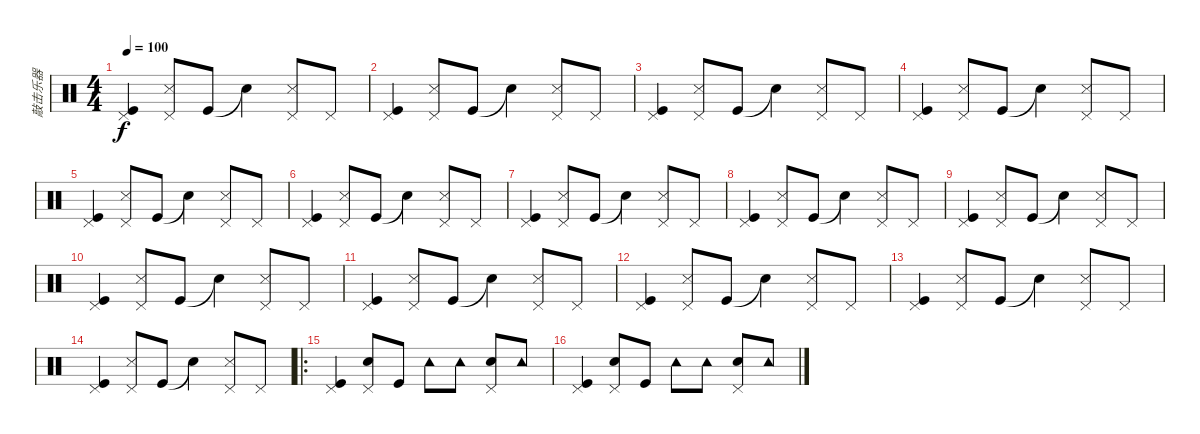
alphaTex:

\track ("敲击乐器" "敲击乐器") {instrument percussion}
\staff {score}
\articulation defaults
\ts (4 4)
\tempo 100
\clef neutral
\ks c
("Pedal Hi-Hat (hit)" "Kick (hit)").4{dy f} ("Pedal Hi-Hat (hit)" "Snare (side stick) 3").8 "Kick (hit)".8 "Snare (hit)"{t}.4 ("Pedal Hi-Hat (hit)" "Snare (side stick) 3").8 "Pedal Hi-Hat (hit)".8 |
("Pedal Hi-Hat (hit)" "Kick (hit)").4 ("Pedal Hi-Hat (hit)" "Snare (side stick) 3").8 "Kick (hit)".8 "Snare (hit)"{t}.4 ("Pedal Hi-Hat (hit)" "Snare (side stick) 3").8 "Pedal Hi-Hat (hit)".8 |
("Pedal Hi-Hat (hit)" "Kick (hit)").4 ("Pedal Hi-Hat (hit)" "Snare (side stick) 3").8 "Kick (hit)".8 "Snare (hit)"{t}.4 ("Pedal Hi-Hat (hit)" "Snare (side stick) 3").8 "Pedal Hi-Hat (hit)".8 |
("Pedal Hi-Hat (hit)" "Kick (hit)").4 ("Pedal Hi-Hat (hit)" "Snare (side stick) 3").8 "Kick (hit)".8 "Snare (hit)"{t}.4 ("Pedal Hi-Hat (hit)" "Snare (side stick) 3").8 "Pedal Hi-Hat (hit)".8 |
("Pedal Hi-Hat (hit)" "Kick (hit)").4 ("Pedal Hi-Hat (hit)" "Snare (side stick) 3").8 "Kick (hit)".8 "Snare (hit)"{t}.4 ("Pedal Hi-Hat (hit)" "Snare (side stick) 3").8 "Pedal Hi-Hat (hit)".8 |
("Pedal Hi-Hat (hit)" "Kick (hit)").4 ("Pedal Hi-Hat (hit)" "Snare (side stick) 3").8 "Kick (hit)".8 "Snare (hit)"{t}.4 ("Pedal Hi-Hat (hit)" "Snare (side stick) 3").8 "Pedal Hi-Hat (hit)".8 |
("Pedal Hi-Hat (hit)" "Kick (hit)").4 ("Pedal Hi-Hat (hit)" "Snare (side stick) 3").8 "Kick (hit)".8 "Snare (hit)"{t}.4 ("Pedal Hi-Hat (hit)" "Snare (side stick) 3").8 "Pedal Hi-Hat (hit)".8 |
("Pedal Hi-Hat (hit)" "Kick (hit)").4 ("Pedal Hi-Hat (hit)" "Snare (side stick) 3").8 "Kick (hit)".8 "Snare (hit)"{t}.4 ("Pedal Hi-Hat (hit)" "Snare (side stick) 3").8 "Pedal Hi-Hat (hit)".8 |
("Pedal Hi-Hat (hit)" "Kick (hit)").4 ("Pedal Hi-Hat (hit)" "Snare (side stick) 3").8 "Kick (hit)".8 "Snare (hit)"{t}.4 ("Pedal Hi-Hat (hit)" "Snare (side stick) 3").8 "Pedal Hi-Hat (hit)".8 |
("Pedal Hi-Hat (hit)" "Kick (hit)").4 ("Pedal Hi-Hat (hit)" "Snare (side stick) 3").8 "Kick (hit)".8 "Snare (hit)"{t}.4 ("Pedal Hi-Hat (hit)" "Snare (side stick) 3").8 "Pedal Hi-Hat (hit)".8 |
("Pedal Hi-Hat (hit)" "Kick (hit)").4 ("Pedal Hi-Hat (hit)" "Snare (side stick) 3").8 "Kick (hit)".8 "Snare (hit)"{t}.4 ("Pedal Hi-Hat (hit)" "Snare (side stick) 3").8 "Pedal Hi-Hat (hit)".8 |
("Pedal Hi-Hat (hit)" "Kick (hit)").4 ("Pedal Hi-Hat (hit)" "Snare (side stick) 3").8 "Kick (hit)".8 "Snare (hit)"{t}.4 ("Pedal Hi-Hat (hit)" "Snare (side stick) 3").8 "Pedal Hi-Hat (hit)".8 |
("Pedal Hi-Hat (hit)" "Kick (hit)").4 ("Pedal Hi-Hat (hit)" "Snare (side stick) 3").8 "Kick (hit)".8 "Snare (hit)"{t}.4 ("Pedal Hi-Hat (hit)" "Snare (side stick) 3").8 "Pedal Hi-Hat (hit)".8 |
("Pedal Hi-Hat (hit)" "Kick (hit)").4 ("Pedal Hi-Hat (hit)" "Snare (side stick) 3").8 "Kick (hit)".8 "Snare (hit)"{t}.4 ("Pedal Hi-Hat (hit)" "Snare (side stick) 3").8 "Pedal Hi-Hat (hit)".8 |
\ro
("Pedal Hi-Hat (hit)" "Kick (hit)").4 ("Pedal Hi-Hat (hit)" "Snare (hit) 2").8 "Kick (hit)".8 "Tambourine (hit)".8 "Tambourine (hit)".8 ("Pedal Hi-Hat (hit)" "Snare (hit) 2").8 "Tambourine (hit)".8 |
("Pedal Hi-Hat (hit)" "Kick (hit)").4 ("Pedal Hi-Hat (hit)" "Snare (hit) 2").8 "Kick (hit)".8 "Tambourine (hit)".8 "Tambourine (hit)".8 ("Pedal Hi-Hat (hit)" "Snare (hit) 2").8 "Tambourine (hit)".8
